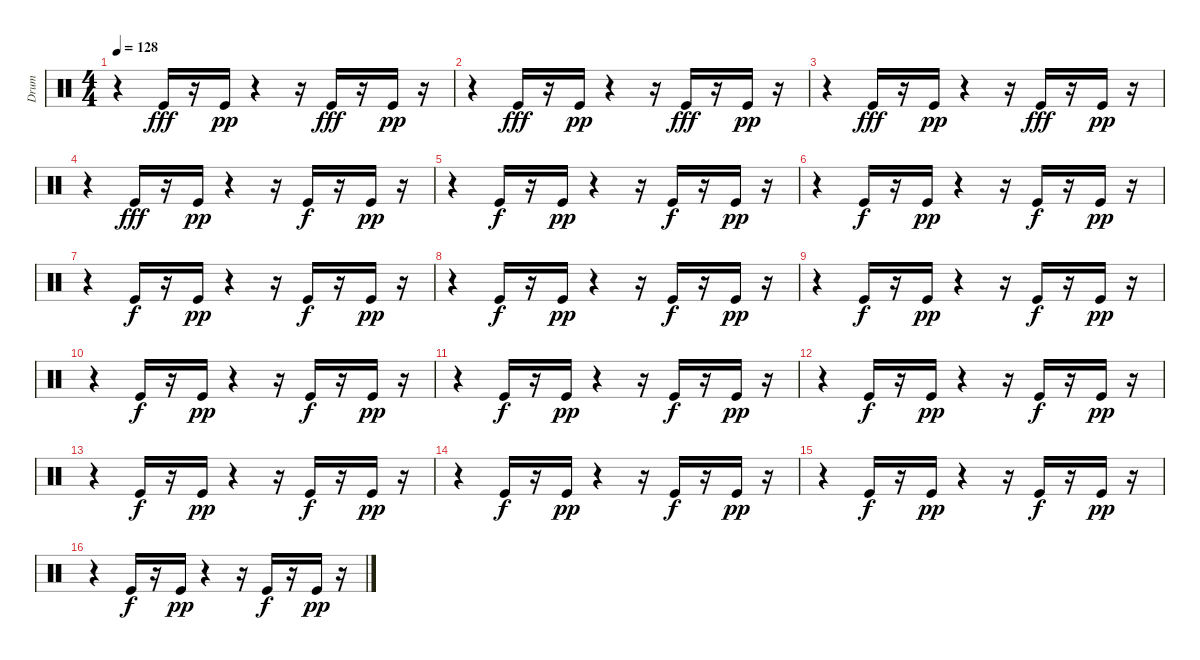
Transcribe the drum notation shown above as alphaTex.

\track ("Drum" "Drum") {instrument percussion}
\staff {score}
\articulation defaults
\ts (4 4)
\tempo 128
\clef neutral
\ks c
r.4{dy fff} "Kick (hit)".16 r.16 "Kick (hit)".16{dy pp} r.4 r.16 "Kick (hit)".16{dy fff} r.16 "Kick (hit)".16{dy pp} r.16 |
r.4 "Kick (hit)".16{dy fff} r.16 "Kick (hit)".16{dy pp} r.4 r.16 "Kick (hit)".16{dy fff} r.16 "Kick (hit)".16{dy pp} r.16 |
r.4 "Kick (hit)".16{dy fff} r.16 "Kick (hit)".16{dy pp} r.4 r.16 "Kick (hit)".16{dy fff} r.16 "Kick (hit)".16{dy pp} r.16 |
r.4 "Kick (hit)".16{dy fff} r.16 "Kick (hit)".16{dy pp} r.4 r.16 "Kick (hit)".16{dy f} r.16 "Kick (hit)".16{dy pp} r.16 |
r.4 "Kick (hit)".16{dy f} r.16 "Kick (hit)".16{dy pp} r.4 r.16 "Kick (hit)".16{dy f} r.16 "Kick (hit)".16{dy pp} r.16 |
r.4 "Kick (hit)".16{dy f} r.16 "Kick (hit)".16{dy pp} r.4 r.16 "Kick (hit)".16{dy f} r.16 "Kick (hit)".16{dy pp} r.16 |
r.4 "Kick (hit)".16{dy f} r.16 "Kick (hit)".16{dy pp} r.4 r.16 "Kick (hit)".16{dy f} r.16 "Kick (hit)".16{dy pp} r.16 |
r.4 "Kick (hit)".16{dy f} r.16 "Kick (hit)".16{dy pp} r.4 r.16 "Kick (hit)".16{dy f} r.16 "Kick (hit)".16{dy pp} r.16 |
r.4 "Kick (hit)".16{dy f} r.16 "Kick (hit)".16{dy pp} r.4 r.16 "Kick (hit)".16{dy f} r.16 "Kick (hit)".16{dy pp} r.16 |
r.4 "Kick (hit)".16{dy f} r.16 "Kick (hit)".16{dy pp} r.4 r.16 "Kick (hit)".16{dy f} r.16 "Kick (hit)".16{dy pp} r.16 |
r.4 "Kick (hit)".16{dy f} r.16 "Kick (hit)".16{dy pp} r.4 r.16 "Kick (hit)".16{dy f} r.16 "Kick (hit)".16{dy pp} r.16 |
r.4 "Kick (hit)".16{dy f} r.16 "Kick (hit)".16{dy pp} r.4 r.16 "Kick (hit)".16{dy f} r.16 "Kick (hit)".16{dy pp} r.16 |
r.4 "Kick (hit)".16{dy f} r.16 "Kick (hit)".16{dy pp} r.4 r.16 "Kick (hit)".16{dy f} r.16 "Kick (hit)".16{dy pp} r.16 |
r.4 "Kick (hit)".16{dy f} r.16 "Kick (hit)".16{dy pp} r.4 r.16 "Kick (hit)".16{dy f} r.16 "Kick (hit)".16{dy pp} r.16 |
r.4 "Kick (hit)".16{dy f} r.16 "Kick (hit)".16{dy pp} r.4 r.16 "Kick (hit)".16{dy f} r.16 "Kick (hit)".16{dy pp} r.16 |
r.4 "Kick (hit)".16{dy f} r.16 "Kick (hit)".16{dy pp} r.4 r.16 "Kick (hit)".16{dy f} r.16 "Kick (hit)".16{dy pp} r.16
